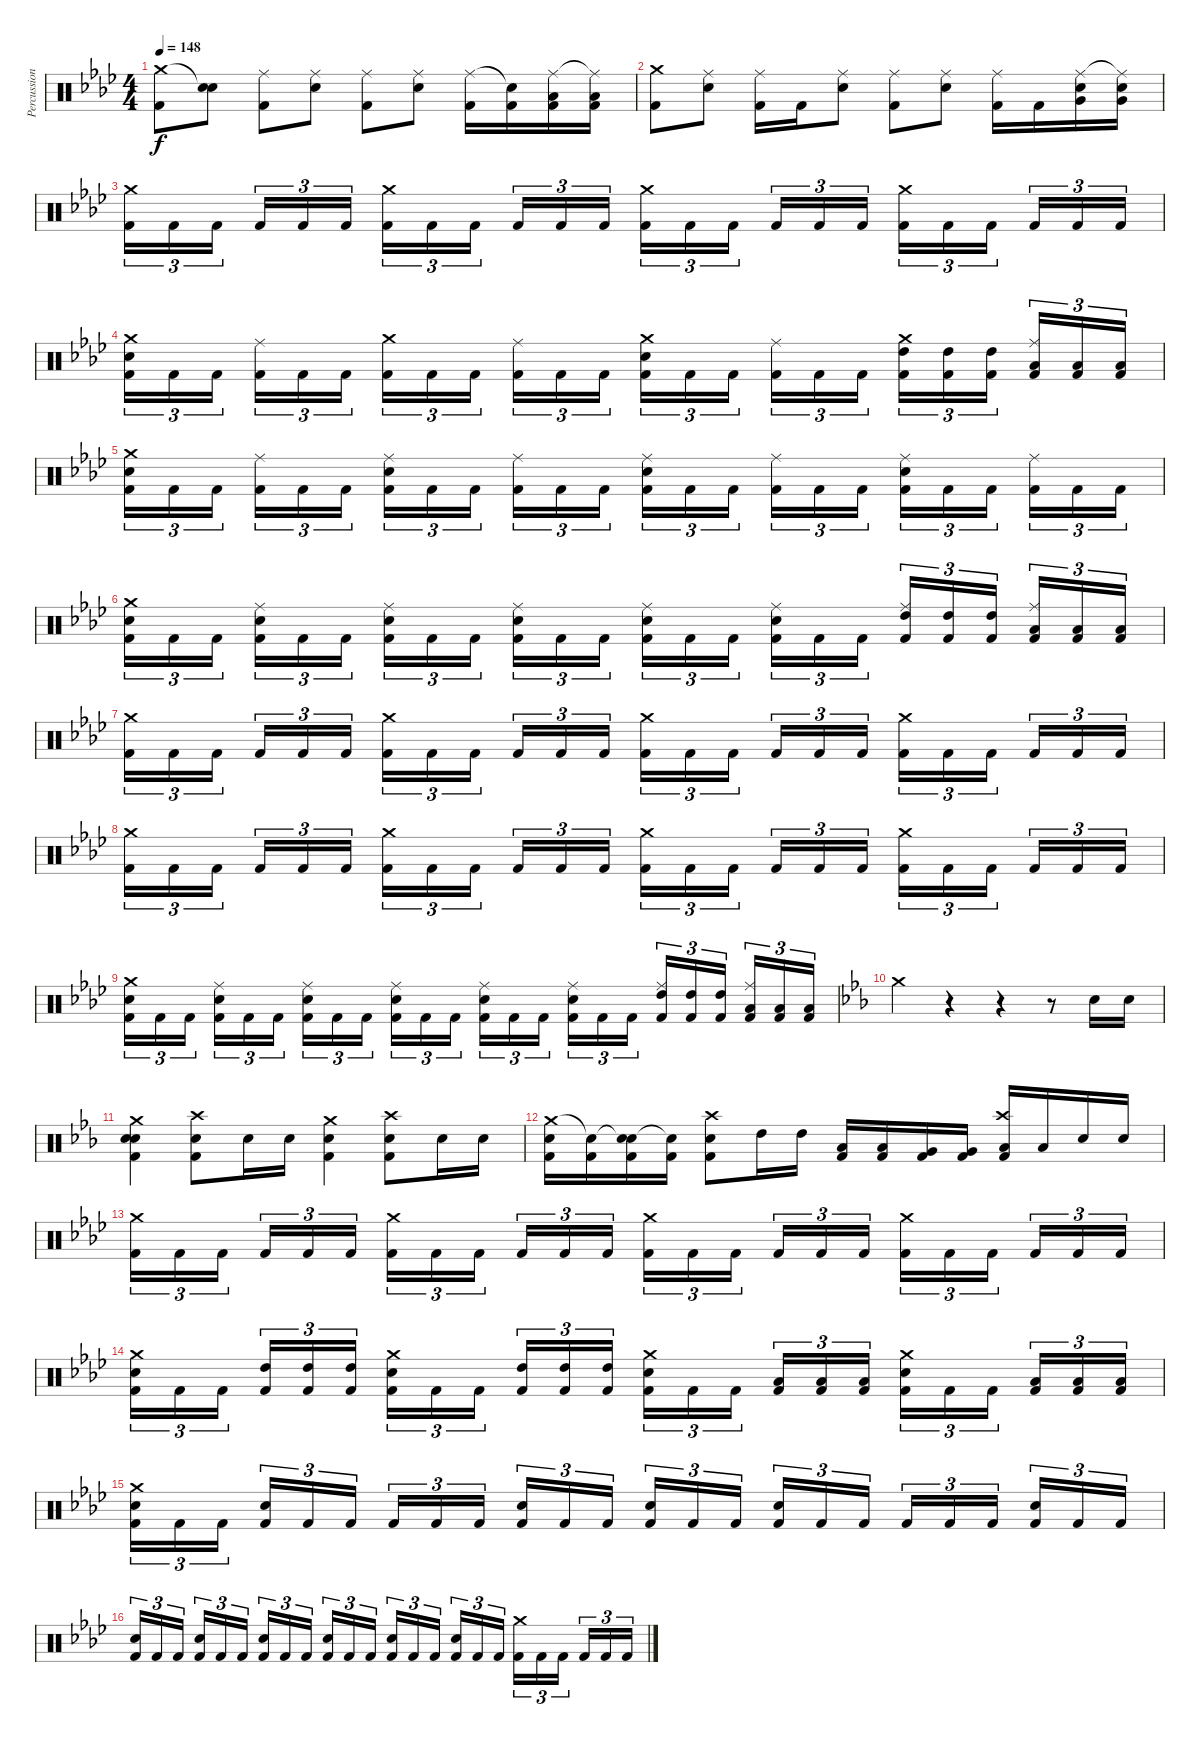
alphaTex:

\track ("Percussion" "Percussion") {instrument percussion}
\staff {score}
\articulation defaults
\ts (4 4)
\tempo 148
\clef neutral
\ks ab
("Crash medium (hit)" "Kick (hit) 2").8{dy f} ("Snare (hit)"{t} "Electric Snare (hit)").8 ("Ride (middle)" "Kick (hit) 2").8 ("Ride (middle)" "Snare (hit) 2").8 ("Ride (middle)" "Kick (hit) 2").8 ("Ride (middle)" "Electric Snare (hit)").8 ("Ride (middle)" "Kick (hit) 2").16 ("Snare (hit)"{t} "Kick (hit) 2").16 ("Ride (middle)" "Low Tom (hit)" "Kick (hit) 2").16 ("Ride (middle)"{t} "Low Tom (hit)" "Kick (hit) 2").16 |
("Crash medium (hit)" "Kick (hit) 2").8 ("Ride (middle)" "Electric Snare (hit)").8 ("Ride (middle)" "Kick (hit) 2").16 "Kick (hit) 2".16 ("Ride (middle)" "Electric Snare (hit)").8 ("Ride (middle)" "Kick (hit) 2").8 ("Ride (middle)" "Snare (hit) 2").8 ("Ride (middle)" "Kick (hit) 2").16 "Kick (hit) 2".16 ("Ride (middle)" "Electric Snare (hit)" "Very Low Tom (hit)").16 ("Ride (middle)"{t} "Electric Snare (hit)" "Very Low Tom (hit)").16 |
("Crash medium (hit)" "Kick (hit) 2").16{tu (3 2)} "Kick (hit) 2".16{tu (3 2)} "Kick (hit) 2".16{tu (3 2)} "Kick (hit) 2".16{tu (3 2)} "Kick (hit) 2".16{tu (3 2)} "Kick (hit) 2".16{tu (3 2)} ("Crash medium (hit)" "Kick (hit) 2").16{tu (3 2)} "Kick (hit) 2".16{tu (3 2)} "Kick (hit) 2".16{tu (3 2)} "Kick (hit) 2".16{tu (3 2)} "Kick (hit) 2".16{tu (3 2)} "Kick (hit) 2".16{tu (3 2)} ("Crash medium (hit)" "Kick (hit) 2").16{tu (3 2)} "Kick (hit) 2".16{tu (3 2)} "Kick (hit) 2".16{tu (3 2)} "Kick (hit) 2".16{tu (3 2)} "Kick (hit) 2".16{tu (3 2)} "Kick (hit) 2".16{tu (3 2)} ("Crash medium (hit)" "Kick (hit) 2").16{tu (3 2)} "Kick (hit) 2".16{tu (3 2)} "Kick (hit) 2".16{tu (3 2)} "Kick (hit) 2".16{tu (3 2)} "Kick (hit) 2".16{tu (3 2)} "Kick (hit) 2".16{tu (3 2)} |
("Crash medium (hit)" "Electric Snare (hit)" "Kick (hit) 2").16{tu (3 2)} "Kick (hit) 2".16{tu (3 2)} "Kick (hit) 2".16{tu (3 2)} ("Ride (middle)" "Kick (hit) 2").16{tu (3 2)} "Kick (hit) 2".16{tu (3 2)} "Kick (hit) 2".16{tu (3 2)} ("Crash medium (hit)" "Kick (hit) 2").16{tu (3 2)} "Kick (hit) 2".16{tu (3 2)} "Kick (hit) 2".16{tu (3 2)} ("Ride (middle)" "Kick (hit) 2").16{tu (3 2)} "Kick (hit) 2".16{tu (3 2)} "Kick (hit) 2".16{tu (3 2)} ("Crash medium (hit)" "Electric Snare (hit)" "Kick (hit) 2").16{tu (3 2)} "Kick (hit) 2".16{tu (3 2)} "Kick (hit) 2".16{tu (3 2)} ("Ride (middle)" "Kick (hit) 2").16{tu (3 2)} "Kick (hit) 2".16{tu (3 2)} "Kick (hit) 2".16{tu (3 2)} ("Crash medium (hit)" "High Tom (hit)" "Kick (hit) 2").16{tu (3 2)} ("High Tom (hit)" "Kick (hit) 2").16{tu (3 2)} ("High Tom (hit)" "Kick (hit) 2").16{tu (3 2)} ("Ride (middle)" "Low Tom (hit)" "Kick (hit) 2").16{tu (3 2)} ("Low Tom (hit)" "Kick (hit) 2").16{tu (3 2)} ("Low Tom (hit)" "Kick (hit) 2").16{tu (3 2)} |
("Crash medium (hit)" "Snare (hit) 2" "Kick (hit) 2").16{tu (3 2)} "Kick (hit) 2".16{tu (3 2)} "Kick (hit) 2".16{tu (3 2)} ("Ride (middle)" "Kick (hit) 2").16{tu (3 2)} "Kick (hit) 2".16{tu (3 2)} "Kick (hit) 2".16{tu (3 2)} ("Ride (middle)" "Snare (hit) 2" "Kick (hit) 2").16{tu (3 2)} "Kick (hit) 2".16{tu (3 2)} "Kick (hit) 2".16{tu (3 2)} ("Ride (middle)" "Kick (hit) 2").16{tu (3 2)} "Kick (hit) 2".16{tu (3 2)} "Kick (hit) 2".16{tu (3 2)} ("Ride (middle)" "Snare (hit) 2" "Kick (hit) 2").16{tu (3 2)} "Kick (hit) 2".16{tu (3 2)} "Kick (hit) 2".16{tu (3 2)} ("Ride (middle)" "Kick (hit) 2").16{tu (3 2)} "Kick (hit) 2".16{tu (3 2)} "Kick (hit) 2".16{tu (3 2)} ("Ride (middle)" "Snare (hit) 2" "Kick (hit) 2").16{tu (3 2)} "Kick (hit) 2".16{tu (3 2)} "Kick (hit) 2".16{tu (3 2)} ("Ride (middle)" "Kick (hit) 2").16{tu (3 2)} "Kick (hit) 2".16{tu (3 2)} "Kick (hit) 2".16{tu (3 2)} |
("Crash medium (hit)" "Snare (hit) 2" "Kick (hit) 2").16{tu (3 2)} "Kick (hit) 2".16{tu (3 2)} "Kick (hit) 2".16{tu (3 2)} ("Ride (middle)" "Snare (hit) 2" "Kick (hit) 2").16{tu (3 2)} "Kick (hit) 2".16{tu (3 2)} "Kick (hit) 2".16{tu (3 2)} ("Ride (middle)" "Snare (hit) 2" "Kick (hit) 2").16{tu (3 2)} "Kick (hit) 2".16{tu (3 2)} "Kick (hit) 2".16{tu (3 2)} ("Ride (middle)" "Snare (hit) 2" "Kick (hit) 2").16{tu (3 2)} "Kick (hit) 2".16{tu (3 2)} "Kick (hit) 2".16{tu (3 2)} ("Ride (middle)" "Snare (hit) 2" "Kick (hit) 2").16{tu (3 2)} "Kick (hit) 2".16{tu (3 2)} "Kick (hit) 2".16{tu (3 2)} ("Ride (middle)" "Snare (hit) 2" "Kick (hit) 2").16{tu (3 2)} "Kick (hit) 2".16{tu (3 2)} "Kick (hit) 2".16{tu (3 2)} ("Ride (middle)" "High Tom (hit)" "Kick (hit) 2").16{tu (3 2)} ("High Tom (hit)" "Kick (hit) 2").16{tu (3 2)} ("High Tom (hit)" "Kick (hit) 2").16{tu (3 2)} ("Ride (middle)" "Low Tom (hit)" "Kick (hit) 2").16{tu (3 2)} ("Low Tom (hit)" "Kick (hit) 2").16{tu (3 2)} ("Low Tom (hit)" "Kick (hit) 2").16{tu (3 2)} |
("Crash medium (hit)" "Kick (hit) 2").16{tu (3 2)} "Kick (hit) 2".16{tu (3 2)} "Kick (hit) 2".16{tu (3 2)} "Kick (hit) 2".16{tu (3 2)} "Kick (hit) 2".16{tu (3 2)} "Kick (hit) 2".16{tu (3 2)} ("Crash medium (hit)" "Kick (hit) 2").16{tu (3 2)} "Kick (hit) 2".16{tu (3 2)} "Kick (hit) 2".16{tu (3 2)} "Kick (hit) 2".16{tu (3 2)} "Kick (hit) 2".16{tu (3 2)} "Kick (hit) 2".16{tu (3 2)} ("Crash medium (hit)" "Kick (hit) 2").16{tu (3 2)} "Kick (hit) 2".16{tu (3 2)} "Kick (hit) 2".16{tu (3 2)} "Kick (hit) 2".16{tu (3 2)} "Kick (hit) 2".16{tu (3 2)} "Kick (hit) 2".16{tu (3 2)} ("Crash medium (hit)" "Kick (hit) 2").16{tu (3 2)} "Kick (hit) 2".16{tu (3 2)} "Kick (hit) 2".16{tu (3 2)} "Kick (hit) 2".16{tu (3 2)} "Kick (hit) 2".16{tu (3 2)} "Kick (hit) 2".16{tu (3 2)} |
("Crash medium (hit)" "Kick (hit) 2").16{tu (3 2)} "Kick (hit) 2".16{tu (3 2)} "Kick (hit) 2".16{tu (3 2)} "Kick (hit) 2".16{tu (3 2)} "Kick (hit) 2".16{tu (3 2)} "Kick (hit) 2".16{tu (3 2)} ("Crash medium (hit)" "Kick (hit) 2").16{tu (3 2)} "Kick (hit) 2".16{tu (3 2)} "Kick (hit) 2".16{tu (3 2)} "Kick (hit) 2".16{tu (3 2)} "Kick (hit) 2".16{tu (3 2)} "Kick (hit) 2".16{tu (3 2)} ("Crash medium (hit)" "Kick (hit) 2").16{tu (3 2)} "Kick (hit) 2".16{tu (3 2)} "Kick (hit) 2".16{tu (3 2)} "Kick (hit) 2".16{tu (3 2)} "Kick (hit) 2".16{tu (3 2)} "Kick (hit) 2".16{tu (3 2)} ("Crash medium (hit)" "Kick (hit) 2").16{tu (3 2)} "Kick (hit) 2".16{tu (3 2)} "Kick (hit) 2".16{tu (3 2)} "Kick (hit) 2".16{tu (3 2)} "Kick (hit) 2".16{tu (3 2)} "Kick (hit) 2".16{tu (3 2)} |
("Crash medium (hit)" "Snare (hit) 2" "Kick (hit) 2").16{tu (3 2)} "Kick (hit) 2".16{tu (3 2)} "Kick (hit) 2".16{tu (3 2)} ("Ride (middle)" "Snare (hit) 2" "Kick (hit) 2").16{tu (3 2)} "Kick (hit) 2".16{tu (3 2)} "Kick (hit) 2".16{tu (3 2)} ("Ride (middle)" "Snare (hit) 2" "Kick (hit) 2").16{tu (3 2)} "Kick (hit) 2".16{tu (3 2)} "Kick (hit) 2".16{tu (3 2)} ("Ride (middle)" "Snare (hit) 2" "Kick (hit) 2").16{tu (3 2)} "Kick (hit) 2".16{tu (3 2)} "Kick (hit) 2".16{tu (3 2)} ("Ride (middle)" "Snare (hit) 2" "Kick (hit) 2").16{tu (3 2)} "Kick (hit) 2".16{tu (3 2)} "Kick (hit) 2".16{tu (3 2)} ("Ride (middle)" "Snare (hit) 2" "Kick (hit) 2").16{tu (3 2)} "Kick (hit) 2".16{tu (3 2)} "Kick (hit) 2".16{tu (3 2)} ("Ride (middle)" "High Tom (hit)" "Kick (hit) 2").16{tu (3 2)} ("High Tom (hit)" "Kick (hit) 2").16{tu (3 2)} ("High Tom (hit)" "Kick (hit) 2").16{tu (3 2)} ("Ride (middle)" "Low Tom (hit)" "Kick (hit) 2").16{tu (3 2)} ("Low Tom (hit)" "Kick (hit) 2").16{tu (3 2)} ("Low Tom (hit)" "Kick (hit) 2").16{tu (3 2)} |
\ks eb "Crash medium (hit)".4
r.4 r.4 r.8 "Snare (hit) 2".16 "Snare (hit) 2".16 |
("Crash medium (hit)" "Snare (hit) 2" "Electric Snare (hit)" "Kick (hit) 2").4 ("Crash high (hit)" "Snare (hit) 2" "Kick (hit) 2").8 "Snare (hit) 2".16 "Snare (hit) 2".16 ("Crash medium (hit)" "Snare (hit) 2" "Kick (hit) 2").4 ("Crash high (hit)" "Snare (hit) 2" "Kick (hit) 2").8 "Snare (hit) 2".16 "Snare (hit) 2".16 |
("Crash medium (hit)" "Snare (hit) 2" "Kick (hit) 2").16 ("Snare (hit)"{t} "Kick (hit) 2").16 ("Snare (hit)"{t} "Snare (hit) 2" "Kick (hit) 2").16 ("Snare (hit)"{t} "Kick (hit) 2").16 ("Crash high (hit)" "Snare (hit) 2" "Kick (hit) 2").8 "High Tom (hit)".16 "High Tom (hit)".16 ("Low Tom (hit)" "Kick (hit) 2").16 ("Low Tom (hit)" "Kick (hit) 2").16 ("Very Low Tom (hit)" "Kick (hit) 2").16 ("Very Low Tom (hit)" "Kick (hit) 2").16 ("Crash high (hit)" "Low Floor Tom (hit)" "Kick (hit) 2").16 "Low Floor Tom (hit)".16 "Snare (hit) 2".16 "Snare (hit) 2".16 |
\ks ab
("Crash medium (hit)" "Kick (hit) 2").16{tu (3 2)} "Kick (hit) 2".16{tu (3 2)} "Kick (hit) 2".16{tu (3 2)} "Kick (hit) 2".16{tu (3 2)} "Kick (hit) 2".16{tu (3 2)} "Kick (hit) 2".16{tu (3 2)} ("Crash medium (hit)" "Kick (hit) 2").16{tu (3 2)} "Kick (hit) 2".16{tu (3 2)} "Kick (hit) 2".16{tu (3 2)} "Kick (hit) 2".16{tu (3 2)} "Kick (hit) 2".16{tu (3 2)} "Kick (hit) 2".16{tu (3 2)} ("Crash medium (hit)" "Kick (hit) 2").16{tu (3 2)} "Kick (hit) 2".16{tu (3 2)} "Kick (hit) 2".16{tu (3 2)} "Kick (hit) 2".16{tu (3 2)} "Kick (hit) 2".16{tu (3 2)} "Kick (hit) 2".16{tu (3 2)} ("Crash medium (hit)" "Kick (hit) 2").16{tu (3 2)} "Kick (hit) 2".16{tu (3 2)} "Kick (hit) 2".16{tu (3 2)} "Kick (hit) 2".16{tu (3 2)} "Kick (hit) 2".16{tu (3 2)} "Kick (hit) 2".16{tu (3 2)} |
("Crash medium (hit)" "Snare (hit) 2" "Kick (hit) 2").16{tu (3 2)} "Kick (hit) 2".16{tu (3 2)} "Kick (hit) 2".16{tu (3 2)} ("High Tom (hit)" "Kick (hit) 2").16{tu (3 2)} ("High Tom (hit)" "Kick (hit) 2").16{tu (3 2)} ("High Tom (hit)" "Kick (hit) 2").16{tu (3 2)} ("Crash medium (hit)" "Snare (hit) 2" "Kick (hit) 2").16{tu (3 2)} "Kick (hit) 2".16{tu (3 2)} "Kick (hit) 2".16{tu (3 2)} ("High Tom (hit)" "Kick (hit) 2").16{tu (3 2)} ("High Tom (hit)" "Kick (hit) 2").16{tu (3 2)} ("High Tom (hit)" "Kick (hit) 2").16{tu (3 2)} ("Crash medium (hit)" "Snare (hit) 2" "Kick (hit) 2").16{tu (3 2)} "Kick (hit) 2".16{tu (3 2)} "Kick (hit) 2".16{tu (3 2)} ("Low Tom (hit)" "Kick (hit) 2").16{tu (3 2)} ("Low Tom (hit)" "Kick (hit) 2").16{tu (3 2)} ("Low Tom (hit)" "Kick (hit) 2").16{tu (3 2)} ("Crash medium (hit)" "Snare (hit) 2" "Kick (hit) 2").16{tu (3 2)} "Kick (hit) 2".16{tu (3 2)} "Kick (hit) 2".16{tu (3 2)} ("Low Tom (hit)" "Kick (hit) 2").16{tu (3 2)} ("Low Tom (hit)" "Kick (hit) 2").16{tu (3 2)} ("Low Tom (hit)" "Kick (hit) 2").16{tu (3 2)} |
("Crash medium (hit)" "Electric Snare (hit)" "Kick (hit) 2").16{tu (3 2)} "Kick (hit) 2".16{tu (3 2)} "Kick (hit) 2".16{tu (3 2)} ("Electric Snare (hit)" "Kick (hit) 2").16{tu (3 2)} "Kick (hit) 2".16{tu (3 2)} "Kick (hit) 2".16{tu (3 2)} "Kick (hit) 2".16{tu (3 2)} "Kick (hit) 2".16{tu (3 2)} "Kick (hit) 2".16{tu (3 2)} ("Electric Snare (hit)" "Kick (hit) 2").16{tu (3 2)} "Kick (hit) 2".16{tu (3 2)} "Kick (hit) 2".16{tu (3 2)} ("Electric Snare (hit)" "Kick (hit) 2").16{tu (3 2)} "Kick (hit) 2".16{tu (3 2)} "Kick (hit) 2".16{tu (3 2)} ("Electric Snare (hit)" "Kick (hit) 2").16{tu (3 2)} "Kick (hit) 2".16{tu (3 2)} "Kick (hit) 2".16{tu (3 2)} "Kick (hit) 2".16{tu (3 2)} "Kick (hit) 2".16{tu (3 2)} "Kick (hit) 2".16{tu (3 2)} ("Electric Snare (hit)" "Kick (hit) 2").16{tu (3 2)} "Kick (hit) 2".16{tu (3 2)} "Kick (hit) 2".16{tu (3 2)} |
("Electric Snare (hit)" "Kick (hit) 2").16{tu (3 2)} "Kick (hit) 2".16{tu (3 2)} "Kick (hit) 2".16{tu (3 2)} ("Electric Snare (hit)" "Kick (hit) 2").16{tu (3 2)} "Kick (hit) 2".16{tu (3 2)} "Kick (hit) 2".16{tu (3 2)} ("Electric Snare (hit)" "Kick (hit) 2").16{tu (3 2)} "Kick (hit) 2".16{tu (3 2)} "Kick (hit) 2".16{tu (3 2)} ("Electric Snare (hit)" "Kick (hit) 2").16{tu (3 2)} "Kick (hit) 2".16{tu (3 2)} "Kick (hit) 2".16{tu (3 2)} ("Electric Snare (hit)" "Kick (hit) 2").16{tu (3 2)} "Kick (hit) 2".16{tu (3 2)} "Kick (hit) 2".16{tu (3 2)} ("Electric Snare (hit)" "Kick (hit) 2").16{tu (3 2)} "Kick (hit) 2".16{tu (3 2)} "Kick (hit) 2".16{tu (3 2)} ("Crash medium (hit)" "Kick (hit) 2").16{tu (3 2)} "Kick (hit) 2".16{tu (3 2)} "Kick (hit) 2".16{tu (3 2)} "Kick (hit) 2".16{tu (3 2)} "Kick (hit) 2".16{tu (3 2)} "Kick (hit) 2".16{tu (3 2)}
